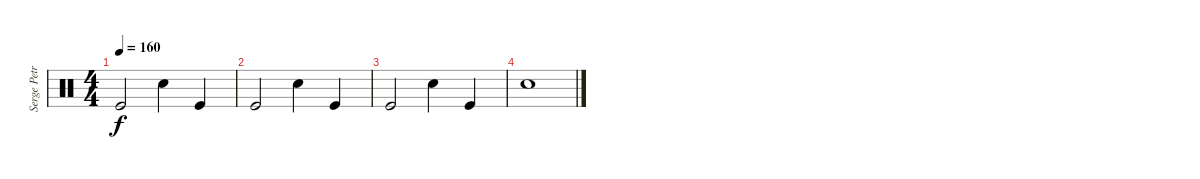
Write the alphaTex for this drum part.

\track ("Serge Petrone" "Serge Petr") {instrument percussion}
\staff {score}
\articulation defaults
\ts (4 4)
\tempo 160
\clef neutral
\ks c "Kick (hit)".2{dy f} "Snare (hit) 2".4 "Kick (hit)".4
|
"Kick (hit)".2 "Snare (hit) 2".4 "Kick (hit)".4 |
"Kick (hit)".2 "Snare (hit) 2".4 "Kick (hit)".4 |
"Snare (hit) 2".1
